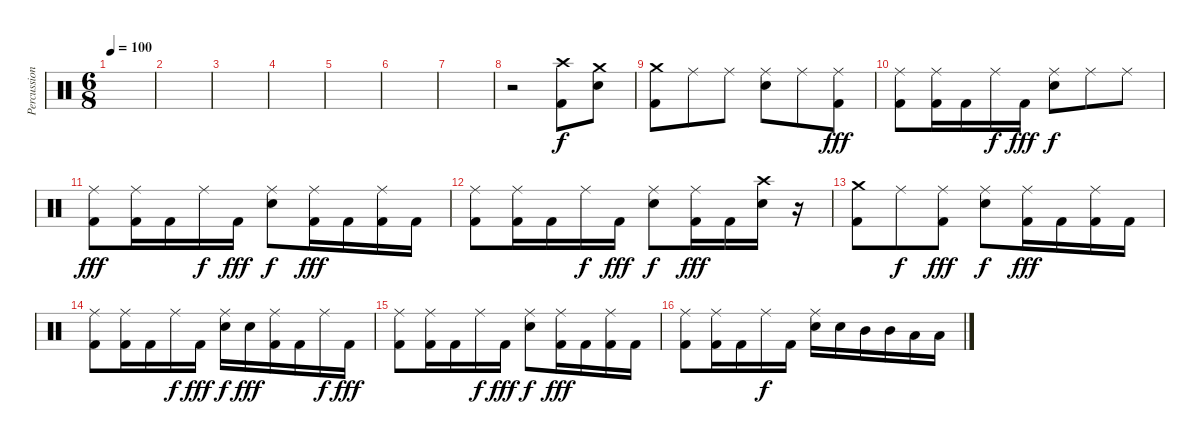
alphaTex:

\track ("Percussion" "Percussion") {instrument percussion}
\staff {score}
\articulation defaults
\ts (6 8)
\tempo 100
\clef neutral
\ks c
|
|
|
|
|
|
|
r.2 ("Crash high (hit)" "Kick (hit) 2").8 ("Crash medium (hit)" "Electric Snare (hit)").8 |
("Crash medium (hit)" "Kick (hit) 2").8 "Ride (middle)".8{dy f} "Ride (middle)".8 ("Ride (middle)" "Electric Snare (hit)").8 "Ride (middle)".8 ("Ride (middle)" "Kick (hit) 2").8{dy fff} |
("Ride (middle)" "Kick (hit) 2").8 ("Ride (middle)" "Kick (hit) 2").16 "Kick (hit) 2".16 "Ride (middle)".16{dy f} "Kick (hit) 2".16{dy fff} ("Ride (middle)" "Electric Snare (hit)").8{dy f} "Ride (middle)".8 "Ride (middle)".8 |
("Ride (middle)" "Kick (hit) 2").8{dy fff} ("Ride (middle)" "Kick (hit) 2").16 "Kick (hit) 2".16 "Ride (middle)".16{dy f} "Kick (hit) 2".16{dy fff} ("Ride (middle)" "Electric Snare (hit)").8{dy f} ("Ride (middle)" "Kick (hit) 2").16{dy fff} "Kick (hit) 2".16 ("Ride (middle)" "Kick (hit) 2").16 "Kick (hit) 2".16 |
("Ride (middle)" "Kick (hit) 2").8 ("Ride (middle)" "Kick (hit) 2").16 "Kick (hit) 2".16 "Ride (middle)".16{dy f} "Kick (hit) 2".16{dy fff} ("Ride (middle)" "Electric Snare (hit)").8{dy f} ("Ride (middle)" "Kick (hit) 2").16{dy fff} "Kick (hit) 2".16 ("Crash high (hit)" "Electric Snare (hit)").16 r.16 |
("Crash medium (hit)" "Kick (hit) 2").8 "Ride (middle)".8{dy f} ("Ride (middle)" "Kick (hit) 2").8{dy fff} ("Ride (middle)" "Electric Snare (hit)").8{dy f} ("Ride (middle)" "Kick (hit) 2").16{dy fff} "Kick (hit) 2".16 ("Ride (middle)" "Kick (hit) 2").16 "Kick (hit) 2".16 |
("Ride (middle)" "Kick (hit) 2").8 ("Ride (middle)" "Kick (hit) 2").16 "Kick (hit) 2".16 "Ride (middle)".16{dy f} "Kick (hit) 2".16{dy fff} ("Ride (middle)" "Electric Snare (hit)").16{dy f} "Electric Snare (hit)".16{dy fff} ("Ride (middle)" "Kick (hit) 2").16 "Kick (hit) 2".16 "Ride (middle)".16{dy f} "Kick (hit) 2".16{dy fff} |
("Ride (middle)" "Kick (hit) 2").8 ("Ride (middle)" "Kick (hit) 2").16 "Kick (hit) 2".16 "Ride (middle)".16{dy f} "Kick (hit) 2".16{dy fff} ("Ride (middle)" "Electric Snare (hit)").8{dy f} ("Ride (middle)" "Kick (hit) 2").16{dy fff} "Kick (hit) 2".16 ("Ride (middle)" "Kick (hit) 2").16 "Kick (hit) 2".16 |
("Ride (middle)" "Kick (hit) 2").8 ("Ride (middle)" "Kick (hit) 2").16 "Kick (hit) 2".16 "Ride (middle)".16{dy f} "Kick (hit) 2".16 ("Ride (middle)" "Electric Snare (hit)").16 "Electric Snare (hit)".16 "Mid Tom (hit)".16 "Mid Tom (hit)".16 "Low Tom (hit)".16 "Low Tom (hit)".16
